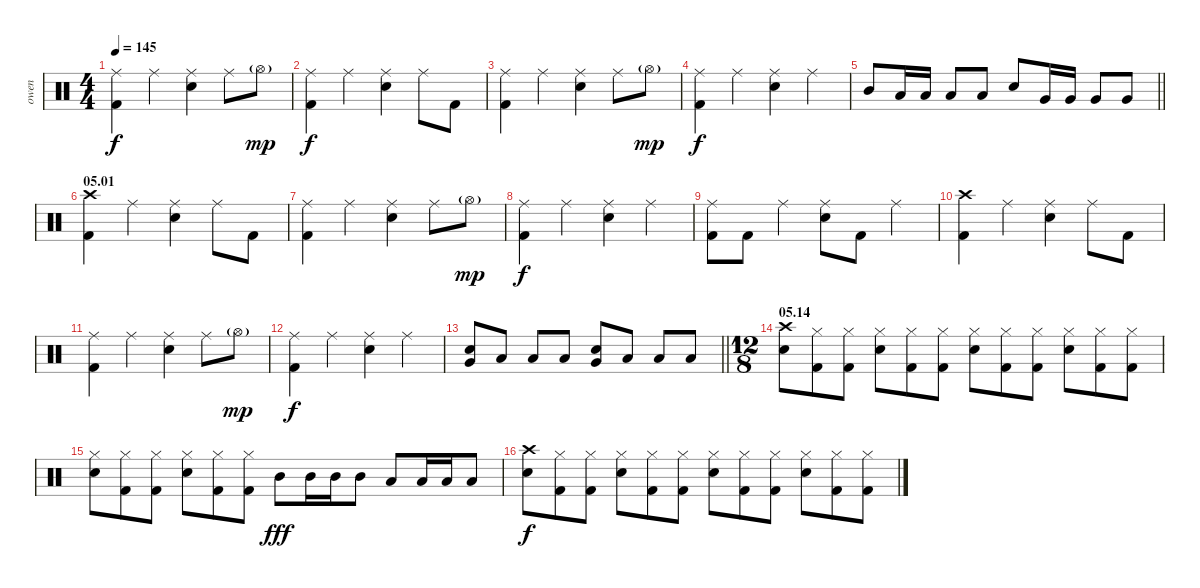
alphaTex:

\track ("owen" "owen") {instrument percussion}
\staff {score}
\articulation defaults
\ts (4 4)
\tempo 145
\clef neutral
\ks c
("Ride (middle)" "Kick (hit) 2").4{dy f} "Ride (middle)".4 ("Ride (middle)" "Snare (hit) 2").4 "Ride (middle)".8 "Hi-Hat (open)"{g}.8{dy mp} |
("Ride (middle)" "Kick (hit) 2").4{dy f} "Ride (middle)".4 ("Ride (middle)" "Snare (hit) 2").4 "Ride (middle)".8 "Kick (hit) 2".8 |
("Ride (middle)" "Kick (hit) 2").4 "Ride (middle)".4 ("Ride (middle)" "Snare (hit) 2").4 "Ride (middle)".8 "Hi-Hat (open)"{g}.8{dy mp} |
("Ride (middle)" "Kick (hit) 2").4{dy f} "Ride (middle)".4 ("Ride (middle)" "Snare (hit) 2").4 "Ride (middle)".4 |
\barLineRight lightlight "Mid Tom (hit)".8 "Low Tom (hit)".16 "Low Tom (hit)".16 "Low Tom (hit)".8 "Low Tom (hit)".8 "Snare (hit) 2".8 "Very Low Tom (hit)".16 "Very Low Tom (hit)".16 "Very Low Tom (hit)".8 "Very Low Tom (hit)".8
|
\section ("" "05.01")
("Crash high (hit)" "Kick (hit) 2").4 "Ride (middle)".4 ("Ride (middle)" "Snare (hit) 2").4 "Ride (middle)".8 "Kick (hit) 2".8 |
("Ride (middle)" "Kick (hit) 2").4 "Ride (middle)".4 ("Ride (middle)" "Snare (hit) 2").4 "Ride (middle)".8 "Hi-Hat (open)"{g}.8{dy mp} |
("Ride (middle)" "Kick (hit) 2").4{dy f} "Ride (middle)".4 ("Ride (middle)" "Snare (hit) 2").4 "Ride (middle)".4 |
("Ride (middle)" "Kick (hit) 2").8 "Kick (hit) 2".8 "Ride (middle)".4 ("Ride (middle)" "Snare (hit) 2").8 "Kick (hit) 2".8 "Ride (middle)".4 |
("Crash high (hit)" "Kick (hit) 2").4 "Ride (middle)".4 ("Ride (middle)" "Snare (hit) 2").4 "Ride (middle)".8 "Kick (hit) 2".8 |
("Ride (middle)" "Kick (hit) 2").4 "Ride (middle)".4 ("Ride (middle)" "Snare (hit) 2").4 "Ride (middle)".8 "Hi-Hat (open)"{g}.8{dy mp} |
("Ride (middle)" "Kick (hit) 2").4{dy f} "Ride (middle)".4 ("Ride (middle)" "Snare (hit) 2").4 "Ride (middle)".4 |
\barLineRight lightlight
("Snare (hit) 2" "Very Low Tom (hit)").8 "Low Tom (hit)".8 "Low Tom (hit)".8 "Low Tom (hit)".8 ("Snare (hit) 2" "Very Low Tom (hit)").8 "Low Tom (hit)".8 "Low Tom (hit)".8 "Low Tom (hit)".8 |
\ts (12 8)
\section ("" "05.14")
("Crash high (hit)" "Snare (hit) 2").8 ("Hi-Hat (closed)" "Kick (hit) 2").8 ("Hi-Hat (closed)" "Kick (hit) 2").8 ("Hi-Hat (closed)" "Snare (hit) 2").8 ("Hi-Hat (closed)" "Kick (hit) 2").8 ("Hi-Hat (closed)" "Kick (hit) 2").8 ("Hi-Hat (closed)" "Snare (hit) 2").8 ("Hi-Hat (closed)" "Kick (hit) 2").8 ("Hi-Hat (closed)" "Kick (hit) 2").8 ("Hi-Hat (closed)" "Snare (hit) 2").8 ("Hi-Hat (closed)" "Kick (hit) 2").8 ("Hi-Hat (closed)" "Kick (hit) 2").8 |
("Hi-Hat (closed)" "Snare (hit) 2").8 ("Hi-Hat (closed)" "Kick (hit) 2").8 ("Hi-Hat (closed)" "Kick (hit) 2").8 ("Hi-Hat (closed)" "Snare (hit) 2").8 ("Hi-Hat (closed)" "Kick (hit) 2").8 ("Hi-Hat (closed)" "Kick (hit) 2").8 "Mid Tom (hit)".8{dy fff} "Mid Tom (hit)".16 "Mid Tom (hit)".16 "Mid Tom (hit)".8 "Low Tom (hit)".8 "Low Tom (hit)".16 "Low Tom (hit)".16 "Low Tom (hit)".8 |
("Crash high (hit)" "Snare (hit) 2").8{dy f} ("Hi-Hat (closed)" "Kick (hit) 2").8 ("Hi-Hat (closed)" "Kick (hit) 2").8 ("Hi-Hat (closed)" "Snare (hit) 2").8 ("Hi-Hat (closed)" "Kick (hit) 2").8 ("Hi-Hat (closed)" "Kick (hit) 2").8 ("Hi-Hat (closed)" "Snare (hit) 2").8 ("Hi-Hat (closed)" "Kick (hit) 2").8 ("Hi-Hat (closed)" "Kick (hit) 2").8 ("Hi-Hat (closed)" "Snare (hit) 2").8 ("Hi-Hat (closed)" "Kick (hit) 2").8 ("Hi-Hat (closed)" "Kick (hit) 2").8
